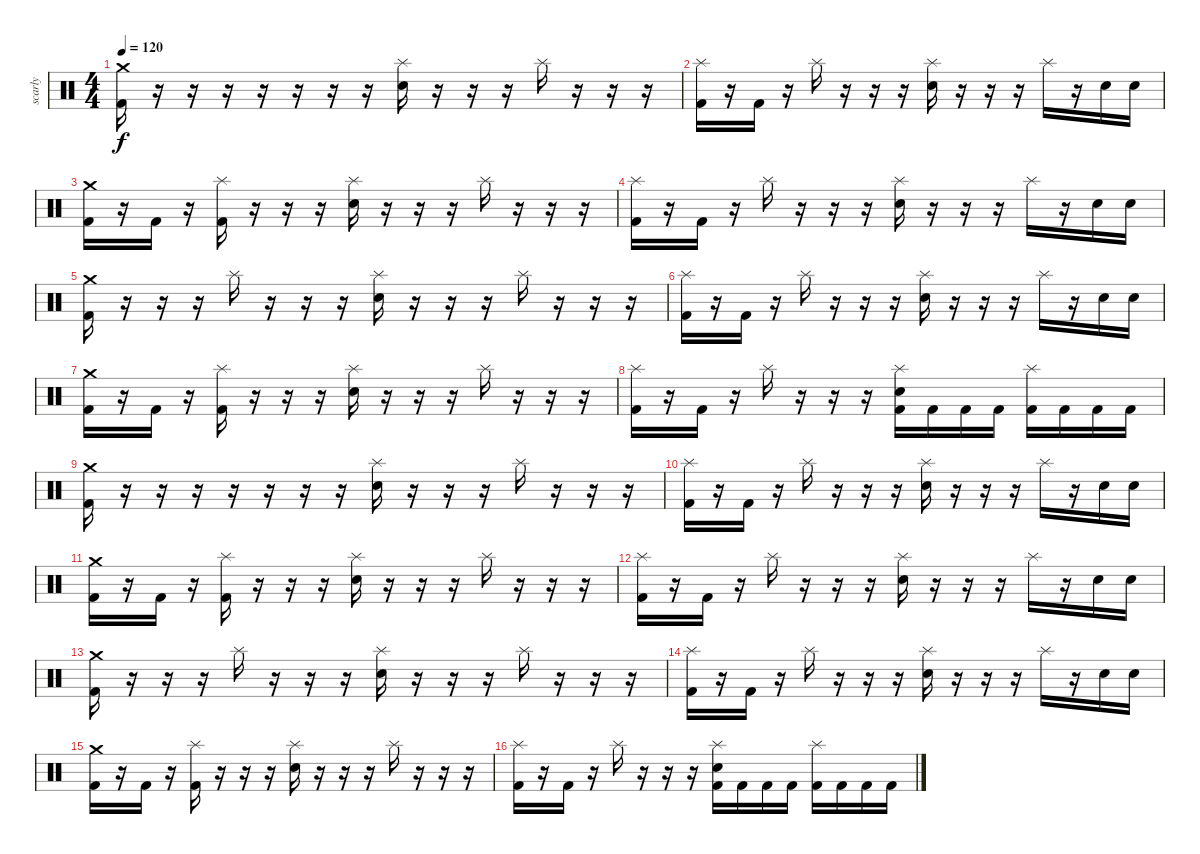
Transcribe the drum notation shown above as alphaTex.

\track ("scarly" "scarly") {instrument percussion}
\staff {score}
\articulation defaults
\ts (4 4)
\tempo 120
\clef neutral
\ks c
("Kick (hit) 2" "Crash medium (hit)").16{dy f} r.16 r.16 r.16 r.16 r.16 r.16 r.16 ("Snare (hit) 2" "Splash (hit)").16 r.16 r.16 r.16 "Splash (hit)".16 r.16 r.16 r.16 |
("Kick (hit) 2" "Splash (hit)").16 r.16 "Kick (hit) 2".16 r.16 "Splash (hit)".16 r.16 r.16 r.16 ("Snare (hit) 2" "Splash (hit)").16 r.16 r.16 r.16 "Splash (hit)".16 r.16 "Snare (hit) 2".16 "Snare (hit) 2".16 |
("Kick (hit) 2" "Crash medium (hit)").16 r.16 "Kick (hit) 2".16 r.16 ("Kick (hit) 2" "Splash (hit)").16 r.16 r.16 r.16 ("Snare (hit) 2" "Splash (hit)").16 r.16 r.16 r.16 "Splash (hit)".16 r.16 r.16 r.16 |
("Kick (hit) 2" "Splash (hit)").16 r.16 "Kick (hit) 2".16 r.16 "Splash (hit)".16 r.16 r.16 r.16 ("Snare (hit) 2" "Splash (hit)").16 r.16 r.16 r.16 "Splash (hit)".16 r.16 "Snare (hit) 2".16 "Snare (hit) 2".16 |
("Kick (hit) 2" "Crash medium (hit)").16 r.16 r.16 r.16 "Splash (hit)".16 r.16 r.16 r.16 ("Snare (hit) 2" "Splash (hit)").16 r.16 r.16 r.16 "Splash (hit)".16 r.16 r.16 r.16 |
("Kick (hit) 2" "Splash (hit)").16 r.16 "Kick (hit) 2".16 r.16 "Splash (hit)".16 r.16 r.16 r.16 ("Snare (hit) 2" "Splash (hit)").16 r.16 r.16 r.16 "Splash (hit)".16 r.16 "Snare (hit) 2".16 "Snare (hit) 2".16 |
("Kick (hit) 2" "Crash medium (hit)").16 r.16 "Kick (hit) 2".16 r.16 ("Kick (hit) 2" "Splash (hit)").16 r.16 r.16 r.16 ("Snare (hit) 2" "Splash (hit)").16 r.16 r.16 r.16 "Splash (hit)".16 r.16 r.16 r.16 |
("Kick (hit) 2" "Splash (hit)").16 r.16 "Kick (hit) 2".16 r.16 "Splash (hit)".16 r.16 r.16 r.16 ("Snare (hit) 2" "Kick (hit) 2" "Splash (hit)").16 "Kick (hit) 2".16 "Kick (hit) 2".16 "Kick (hit) 2".16 ("Kick (hit) 2" "Splash (hit)").16 "Kick (hit) 2".16 "Kick (hit) 2".16 "Kick (hit) 2".16 |
("Kick (hit) 2" "Crash medium (hit)").16 r.16 r.16 r.16 r.16 r.16 r.16 r.16 ("Snare (hit) 2" "Splash (hit)").16 r.16 r.16 r.16 "Splash (hit)".16 r.16 r.16 r.16 |
("Kick (hit) 2" "Splash (hit)").16 r.16 "Kick (hit) 2".16 r.16 "Splash (hit)".16 r.16 r.16 r.16 ("Snare (hit) 2" "Splash (hit)").16 r.16 r.16 r.16 "Splash (hit)".16 r.16 "Snare (hit) 2".16 "Snare (hit) 2".16 |
("Kick (hit) 2" "Crash medium (hit)").16 r.16 "Kick (hit) 2".16 r.16 ("Kick (hit) 2" "Splash (hit)").16 r.16 r.16 r.16 ("Snare (hit) 2" "Splash (hit)").16 r.16 r.16 r.16 "Splash (hit)".16 r.16 r.16 r.16 |
("Kick (hit) 2" "Splash (hit)").16 r.16 "Kick (hit) 2".16 r.16 "Splash (hit)".16 r.16 r.16 r.16 ("Snare (hit) 2" "Splash (hit)").16 r.16 r.16 r.16 "Splash (hit)".16 r.16 "Snare (hit) 2".16 "Snare (hit) 2".16 |
("Kick (hit) 2" "Crash medium (hit)").16 r.16 r.16 r.16 "Splash (hit)".16 r.16 r.16 r.16 ("Snare (hit) 2" "Splash (hit)").16 r.16 r.16 r.16 "Splash (hit)".16 r.16 r.16 r.16 |
("Kick (hit) 2" "Splash (hit)").16 r.16 "Kick (hit) 2".16 r.16 "Splash (hit)".16 r.16 r.16 r.16 ("Snare (hit) 2" "Splash (hit)").16 r.16 r.16 r.16 "Splash (hit)".16 r.16 "Snare (hit) 2".16 "Snare (hit) 2".16 |
("Kick (hit) 2" "Crash medium (hit)").16 r.16 "Kick (hit) 2".16 r.16 ("Kick (hit) 2" "Splash (hit)").16 r.16 r.16 r.16 ("Snare (hit) 2" "Splash (hit)").16 r.16 r.16 r.16 "Splash (hit)".16 r.16 r.16 r.16 |
("Kick (hit) 2" "Splash (hit)").16 r.16 "Kick (hit) 2".16 r.16 "Splash (hit)".16 r.16 r.16 r.16 ("Snare (hit) 2" "Kick (hit) 2" "Splash (hit)").16 "Kick (hit) 2".16 "Kick (hit) 2".16 "Kick (hit) 2".16 ("Kick (hit) 2" "Splash (hit)").16 "Kick (hit) 2".16 "Kick (hit) 2".16 "Kick (hit) 2".16
